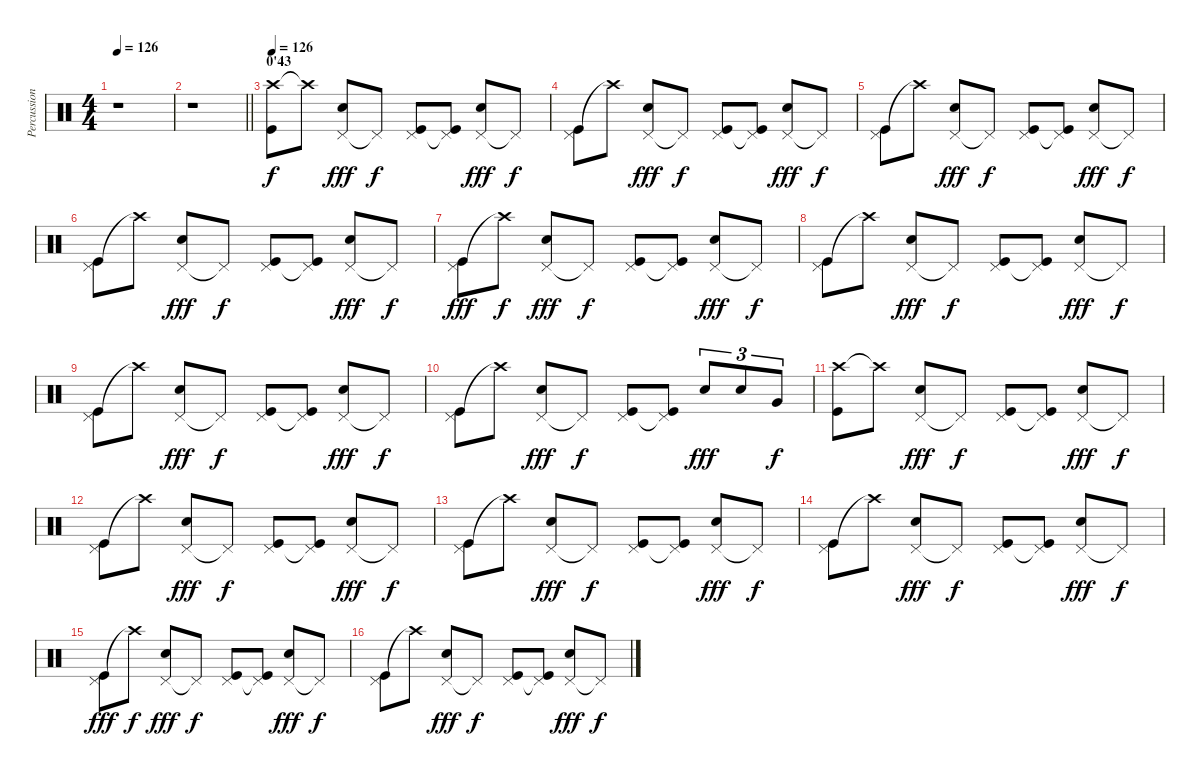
\track ("Percussions" "Percussion") {instrument percussion}
\staff {score}
\articulation defaults
\ts (4 4)
\tempo 126
\clef neutral
\ks c
r.1{dy f} |
\barLineRight lightlight
r.1 |
\section ("" "0'43")
\tempo 126
("Crash high (hit)" "Kick (hit)").8 "Crash high (hit)"{t}.8 ("Pedal Hi-Hat (hit)" "Snare (hit) 2").8{dy fff} "Pedal Hi-Hat (hit)"{t}.8{dy f} ("Pedal Hi-Hat (hit)" "Kick (hit)").8 ("Pedal Hi-Hat (hit)"{t} "Kick (hit)").8 ("Pedal Hi-Hat (hit)" "Snare (hit) 2").8{dy fff} "Pedal Hi-Hat (hit)"{t}.8{dy f} |
("Pedal Hi-Hat (hit)" "Kick (hit)").8 "Crash high (hit)"{t}.8 ("Pedal Hi-Hat (hit)" "Snare (hit) 2").8{dy fff} "Pedal Hi-Hat (hit)"{t}.8{dy f} ("Pedal Hi-Hat (hit)" "Kick (hit)").8 ("Pedal Hi-Hat (hit)"{t} "Kick (hit)").8 ("Pedal Hi-Hat (hit)" "Snare (hit) 2").8{dy fff} "Pedal Hi-Hat (hit)"{t}.8{dy f} |
("Pedal Hi-Hat (hit)" "Kick (hit)").8 "Crash high (hit)"{t}.8 ("Pedal Hi-Hat (hit)" "Snare (hit) 2").8{dy fff} "Pedal Hi-Hat (hit)"{t}.8{dy f} ("Pedal Hi-Hat (hit)" "Kick (hit)").8 ("Pedal Hi-Hat (hit)"{t} "Kick (hit)").8 ("Pedal Hi-Hat (hit)" "Snare (hit) 2").8{dy fff} "Pedal Hi-Hat (hit)"{t}.8{dy f} |
("Pedal Hi-Hat (hit)" "Kick (hit)").8 "Crash high (hit)"{t}.8 ("Pedal Hi-Hat (hit)" "Snare (hit) 2").8{dy fff} "Pedal Hi-Hat (hit)"{t}.8{dy f} ("Pedal Hi-Hat (hit)" "Kick (hit)").8 ("Pedal Hi-Hat (hit)"{t} "Kick (hit)").8 ("Pedal Hi-Hat (hit)" "Snare (hit) 2").8{dy fff} "Pedal Hi-Hat (hit)"{t}.8{dy f} |
("Pedal Hi-Hat (hit)" "Kick (hit)").8{dy fff} "Crash high (hit)"{t}.8{dy f} ("Pedal Hi-Hat (hit)" "Snare (hit) 2").8{dy fff} "Pedal Hi-Hat (hit)"{t}.8{dy f} ("Pedal Hi-Hat (hit)" "Kick (hit)").8 ("Pedal Hi-Hat (hit)"{t} "Kick (hit)").8 ("Pedal Hi-Hat (hit)" "Snare (hit) 2").8{dy fff} "Pedal Hi-Hat (hit)"{t}.8{dy f} |
("Pedal Hi-Hat (hit)" "Kick (hit)").8 "Crash high (hit)"{t}.8 ("Pedal Hi-Hat (hit)" "Snare (hit) 2").8{dy fff} "Pedal Hi-Hat (hit)"{t}.8{dy f} ("Pedal Hi-Hat (hit)" "Kick (hit)").8 ("Pedal Hi-Hat (hit)"{t} "Kick (hit)").8 ("Pedal Hi-Hat (hit)" "Snare (hit) 2").8{dy fff} "Pedal Hi-Hat (hit)"{t}.8{dy f} |
("Pedal Hi-Hat (hit)" "Kick (hit)").8 "Crash high (hit)"{t}.8 ("Pedal Hi-Hat (hit)" "Snare (hit) 2").8{dy fff} "Pedal Hi-Hat (hit)"{t}.8{dy f} ("Pedal Hi-Hat (hit)" "Kick (hit)").8 ("Pedal Hi-Hat (hit)"{t} "Kick (hit)").8 ("Pedal Hi-Hat (hit)" "Snare (hit) 2").8{dy fff} "Pedal Hi-Hat (hit)"{t}.8{dy f} |
("Pedal Hi-Hat (hit)" "Kick (hit)").8 "Crash high (hit)"{t}.8 ("Pedal Hi-Hat (hit)" "Snare (hit) 2").8{dy fff} "Pedal Hi-Hat (hit)"{t}.8{dy f} ("Pedal Hi-Hat (hit)" "Kick (hit)").8 ("Pedal Hi-Hat (hit)"{t} "Kick (hit)").8 "Snare (hit) 2".8{tu (3 2) dy fff} "Snare (hit) 2".8{tu (3 2)} "Very Low Tom (hit)".8{tu (3 2) dy f} |
("Crash high (hit)" "Kick (hit)").8 "Crash high (hit)"{t}.8 ("Pedal Hi-Hat (hit)" "Snare (hit) 2").8{dy fff} "Pedal Hi-Hat (hit)"{t}.8{dy f} ("Pedal Hi-Hat (hit)" "Kick (hit)").8 ("Pedal Hi-Hat (hit)"{t} "Kick (hit)").8 ("Pedal Hi-Hat (hit)" "Snare (hit) 2").8{dy fff} "Pedal Hi-Hat (hit)"{t}.8{dy f} |
("Pedal Hi-Hat (hit)" "Kick (hit)").8 "Crash high (hit)"{t}.8 ("Pedal Hi-Hat (hit)" "Snare (hit) 2").8{dy fff} "Pedal Hi-Hat (hit)"{t}.8{dy f} ("Pedal Hi-Hat (hit)" "Kick (hit)").8 ("Pedal Hi-Hat (hit)"{t} "Kick (hit)").8 ("Pedal Hi-Hat (hit)" "Snare (hit) 2").8{dy fff} "Pedal Hi-Hat (hit)"{t}.8{dy f} |
("Pedal Hi-Hat (hit)" "Kick (hit)").8 "Crash high (hit)"{t}.8 ("Pedal Hi-Hat (hit)" "Snare (hit) 2").8{dy fff} "Pedal Hi-Hat (hit)"{t}.8{dy f} ("Pedal Hi-Hat (hit)" "Kick (hit)").8 ("Pedal Hi-Hat (hit)"{t} "Kick (hit)").8 ("Pedal Hi-Hat (hit)" "Snare (hit) 2").8{dy fff} "Pedal Hi-Hat (hit)"{t}.8{dy f} |
("Pedal Hi-Hat (hit)" "Kick (hit)").8 "Crash high (hit)"{t}.8 ("Pedal Hi-Hat (hit)" "Snare (hit) 2").8{dy fff} "Pedal Hi-Hat (hit)"{t}.8{dy f} ("Pedal Hi-Hat (hit)" "Kick (hit)").8 ("Pedal Hi-Hat (hit)"{t} "Kick (hit)").8 ("Pedal Hi-Hat (hit)" "Snare (hit) 2").8{dy fff} "Pedal Hi-Hat (hit)"{t}.8{dy f} |
("Pedal Hi-Hat (hit)" "Kick (hit)").8{dy fff} "Crash high (hit)"{t}.8{dy f} ("Pedal Hi-Hat (hit)" "Snare (hit) 2").8{dy fff} "Pedal Hi-Hat (hit)"{t}.8{dy f} ("Pedal Hi-Hat (hit)" "Kick (hit)").8 ("Pedal Hi-Hat (hit)"{t} "Kick (hit)").8 ("Pedal Hi-Hat (hit)" "Snare (hit) 2").8{dy fff} "Pedal Hi-Hat (hit)"{t}.8{dy f} |
("Pedal Hi-Hat (hit)" "Kick (hit)").8 "Crash high (hit)"{t}.8 ("Pedal Hi-Hat (hit)" "Snare (hit) 2").8{dy fff} "Pedal Hi-Hat (hit)"{t}.8{dy f} ("Pedal Hi-Hat (hit)" "Kick (hit)").8 ("Pedal Hi-Hat (hit)"{t} "Kick (hit)").8 ("Pedal Hi-Hat (hit)" "Snare (hit) 2").8{dy fff} "Pedal Hi-Hat (hit)"{t}.8{dy f}
